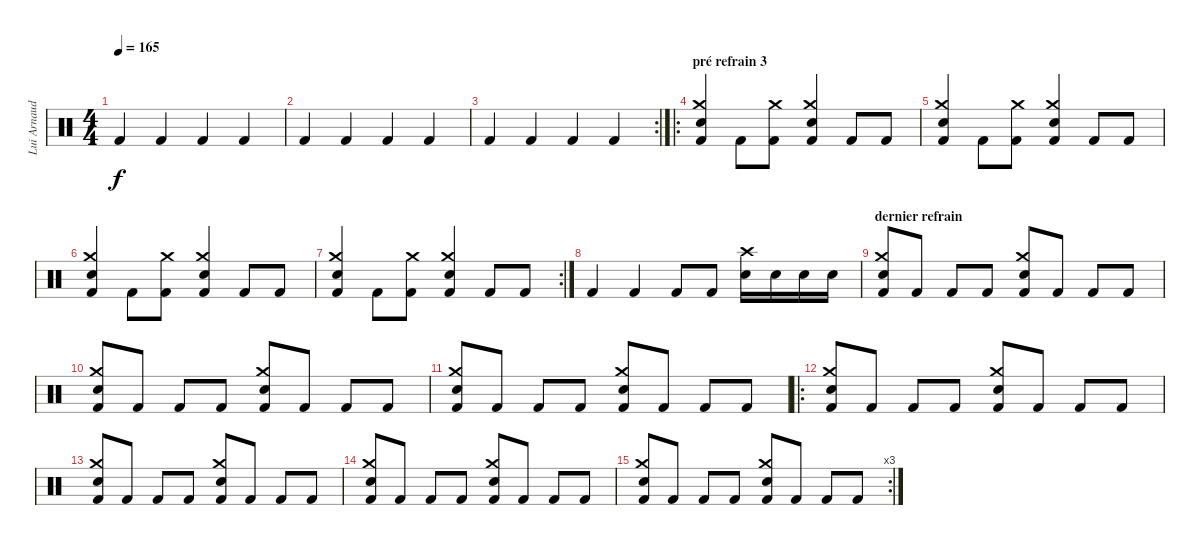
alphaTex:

\track ("Lui Arnaudin" "Lui Arnaud") {instrument percussion}
\staff {score}
\articulation defaults
\ts (4 4)
\tempo 165
\clef neutral
\ks c "Kick (hit) 2".4{dy f} "Kick (hit) 2".4 "Kick (hit) 2".4 "Kick (hit) 2".4
|
"Kick (hit) 2".4 "Kick (hit) 2".4 "Kick (hit) 2".4 "Kick (hit) 2".4 |
\rc 2 "Kick (hit) 2".4 "Kick (hit) 2".4 "Kick (hit) 2".4 "Kick (hit) 2".4
|
\ro
\section ("" "pré refrain 3")
("Kick (hit) 2" "Crash medium (hit)" "Electric Snare (hit)").4 "Kick (hit) 2".8 ("Crash medium (hit)" "Kick (hit) 2").8 ("Kick (hit) 2" "Crash medium (hit)" "Electric Snare (hit)").4 "Kick (hit) 2".8 "Kick (hit) 2".8 |
("Kick (hit) 2" "Crash medium (hit)" "Electric Snare (hit)").4 "Kick (hit) 2".8 ("Crash medium (hit)" "Kick (hit) 2").8 ("Kick (hit) 2" "Crash medium (hit)" "Electric Snare (hit)").4 "Kick (hit) 2".8 "Kick (hit) 2".8 |
("Kick (hit) 2" "Crash medium (hit)" "Electric Snare (hit)").4 "Kick (hit) 2".8 ("Crash medium (hit)" "Kick (hit) 2").8 ("Kick (hit) 2" "Crash medium (hit)" "Electric Snare (hit)").4 "Kick (hit) 2".8 "Kick (hit) 2".8 |
\rc 2
("Kick (hit) 2" "Crash medium (hit)" "Electric Snare (hit)").4 "Kick (hit) 2".8 ("Crash medium (hit)" "Kick (hit) 2").8 ("Kick (hit) 2" "Crash medium (hit)" "Electric Snare (hit)").4 "Kick (hit) 2".8 "Kick (hit) 2".8 |
"Kick (hit) 2".4 "Kick (hit) 2".4 "Kick (hit) 2".8 "Kick (hit) 2".8 ("Crash high (hit)" "Snare (hit) 2").16 "Snare (hit) 2".16 "Snare (hit) 2".16 "Snare (hit) 2".16 |
\section ("" "dernier refrain")
("Kick (hit) 2" "Crash medium (hit)" "Electric Snare (hit)").8 "Kick (hit) 2".8 "Kick (hit) 2".8 "Kick (hit) 2".8 ("Kick (hit) 2" "Crash medium (hit)" "Electric Snare (hit)").8 "Kick (hit) 2".8 "Kick (hit) 2".8 "Kick (hit) 2".8 |
("Kick (hit) 2" "Crash medium (hit)" "Electric Snare (hit)").8 "Kick (hit) 2".8 "Kick (hit) 2".8 "Kick (hit) 2".8 ("Kick (hit) 2" "Crash medium (hit)" "Electric Snare (hit)").8 "Kick (hit) 2".8 "Kick (hit) 2".8 "Kick (hit) 2".8 |
("Kick (hit) 2" "Crash medium (hit)" "Electric Snare (hit)").8 "Kick (hit) 2".8 "Kick (hit) 2".8 "Kick (hit) 2".8 ("Kick (hit) 2" "Crash medium (hit)" "Electric Snare (hit)").8 "Kick (hit) 2".8 "Kick (hit) 2".8 "Kick (hit) 2".8 |
\ro
("Kick (hit) 2" "Crash medium (hit)" "Electric Snare (hit)").8 "Kick (hit) 2".8 "Kick (hit) 2".8 "Kick (hit) 2".8 ("Kick (hit) 2" "Crash medium (hit)" "Electric Snare (hit)").8 "Kick (hit) 2".8 "Kick (hit) 2".8 "Kick (hit) 2".8 |
("Kick (hit) 2" "Crash medium (hit)" "Electric Snare (hit)").8 "Kick (hit) 2".8 "Kick (hit) 2".8 "Kick (hit) 2".8 ("Kick (hit) 2" "Crash medium (hit)" "Electric Snare (hit)").8 "Kick (hit) 2".8 "Kick (hit) 2".8 "Kick (hit) 2".8 |
("Kick (hit) 2" "Crash medium (hit)" "Electric Snare (hit)").8 "Kick (hit) 2".8 "Kick (hit) 2".8 "Kick (hit) 2".8 ("Kick (hit) 2" "Crash medium (hit)" "Electric Snare (hit)").8 "Kick (hit) 2".8 "Kick (hit) 2".8 "Kick (hit) 2".8 |
\rc 3
("Kick (hit) 2" "Crash medium (hit)" "Electric Snare (hit)").8 "Kick (hit) 2".8 "Kick (hit) 2".8 "Kick (hit) 2".8 ("Kick (hit) 2" "Crash medium (hit)" "Electric Snare (hit)").8 "Kick (hit) 2".8 "Kick (hit) 2".8 "Kick (hit) 2".8
